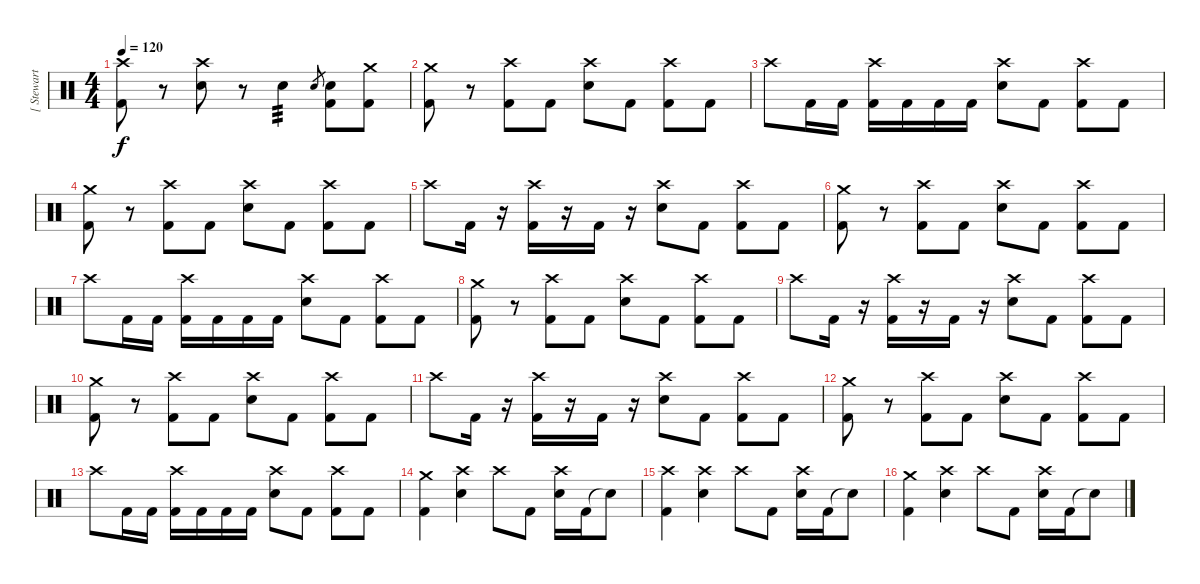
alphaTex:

\track ("[ Stewart ] " "[ Stewart ") {instrument percussion}
\staff {score}
\articulation defaults
\ts (4 4)
\tempo 120
\clef neutral
\ks c
("Kick (hit) 2" "Crash high (hit)").8{dy f} r.8 ("Electric Snare (hit)" "Crash high (hit)").8 r.8 "Electric Snare (hit)".4{tp 3} "Electric Snare (hit)".8{gr} ("Kick (hit) 2" "Electric Snare (hit)").8 ("Kick (hit) 2" "Crash medium (hit)").8 |
("Kick (hit) 2" "Crash medium (hit)").8 r.8 ("Kick (hit) 2" "Crash high (hit)").8 "Kick (hit) 2".8 ("Electric Snare (hit)" "Crash high (hit)").8 "Kick (hit) 2".8 ("Kick (hit) 2" "Crash high (hit)").8 "Kick (hit) 2".8 |
"Crash high (hit)".8 "Kick (hit) 2".16 "Kick (hit) 2".16 ("Kick (hit) 2" "Crash high (hit)").16 "Kick (hit) 2".16 "Kick (hit) 2".16 "Kick (hit) 2".16 ("Electric Snare (hit)" "Crash high (hit)").8 "Kick (hit) 2".8 ("Kick (hit) 2" "Crash high (hit)").8 "Kick (hit) 2".8 |
("Kick (hit) 2" "Crash medium (hit)").8 r.8 ("Kick (hit) 2" "Crash high (hit)").8 "Kick (hit) 2".8 ("Electric Snare (hit)" "Crash high (hit)").8 "Kick (hit) 2".8 ("Kick (hit) 2" "Crash high (hit)").8 "Kick (hit) 2".8 |
"Crash high (hit)".8 "Kick (hit) 2".16 r.16 ("Kick (hit) 2" "Crash high (hit)").16 r.16 "Kick (hit) 2".16 r.16 ("Electric Snare (hit)" "Crash high (hit)").8 "Kick (hit) 2".8 ("Kick (hit) 2" "Crash high (hit)").8 "Kick (hit) 2".8 |
("Kick (hit) 2" "Crash medium (hit)").8 r.8 ("Kick (hit) 2" "Crash high (hit)").8 "Kick (hit) 2".8 ("Electric Snare (hit)" "Crash high (hit)").8 "Kick (hit) 2".8 ("Kick (hit) 2" "Crash high (hit)").8 "Kick (hit) 2".8 |
"Crash high (hit)".8 "Kick (hit) 2".16 "Kick (hit) 2".16 ("Kick (hit) 2" "Crash high (hit)").16 "Kick (hit) 2".16 "Kick (hit) 2".16 "Kick (hit) 2".16 ("Electric Snare (hit)" "Crash high (hit)").8 "Kick (hit) 2".8 ("Kick (hit) 2" "Crash high (hit)").8 "Kick (hit) 2".8 |
("Kick (hit) 2" "Crash medium (hit)").8 r.8 ("Kick (hit) 2" "Crash high (hit)").8 "Kick (hit) 2".8 ("Electric Snare (hit)" "Crash high (hit)").8 "Kick (hit) 2".8 ("Kick (hit) 2" "Crash high (hit)").8 "Kick (hit) 2".8 |
"Crash high (hit)".8 "Kick (hit) 2".16 r.16 ("Kick (hit) 2" "Crash high (hit)").16 r.16 "Kick (hit) 2".16 r.16 ("Electric Snare (hit)" "Crash high (hit)").8 "Kick (hit) 2".8 ("Kick (hit) 2" "Crash high (hit)").8 "Kick (hit) 2".8 |
("Kick (hit) 2" "Crash medium (hit)").8 r.8 ("Kick (hit) 2" "Crash high (hit)").8 "Kick (hit) 2".8 ("Electric Snare (hit)" "Crash high (hit)").8 "Kick (hit) 2".8 ("Kick (hit) 2" "Crash high (hit)").8 "Kick (hit) 2".8 |
"Crash high (hit)".8 "Kick (hit) 2".16 r.16 ("Kick (hit) 2" "Crash high (hit)").16 r.16 "Kick (hit) 2".16 r.16 ("Electric Snare (hit)" "Crash high (hit)").8 "Kick (hit) 2".8 ("Kick (hit) 2" "Crash high (hit)").8 "Kick (hit) 2".8 |
("Kick (hit) 2" "Crash medium (hit)").8 r.8 ("Kick (hit) 2" "Crash high (hit)").8 "Kick (hit) 2".8 ("Electric Snare (hit)" "Crash high (hit)").8 "Kick (hit) 2".8 ("Kick (hit) 2" "Crash high (hit)").8 "Kick (hit) 2".8 |
"Crash high (hit)".8 "Kick (hit) 2".16 "Kick (hit) 2".16 ("Kick (hit) 2" "Crash high (hit)").16 "Kick (hit) 2".16 "Kick (hit) 2".16 "Kick (hit) 2".16 ("Electric Snare (hit)" "Crash high (hit)").8 "Kick (hit) 2".8 ("Kick (hit) 2" "Crash high (hit)").8 "Kick (hit) 2".8 |
("Kick (hit) 2" "Crash medium (hit)").4 ("Electric Snare (hit)" "Crash high (hit)").4 "Crash high (hit)".8 "Kick (hit) 2".8 ("Electric Snare (hit)" "Crash high (hit)").16 "Kick (hit) 2".16 "Snare (hit)"{t}.8 |
("Kick (hit) 2" "Crash high (hit)").4 ("Electric Snare (hit)" "Crash high (hit)").4 "Crash high (hit)".8 "Kick (hit) 2".8 ("Electric Snare (hit)" "Crash high (hit)").16 "Kick (hit) 2".16 "Snare (hit)"{t}.8 |
("Kick (hit) 2" "Crash medium (hit)").4 ("Electric Snare (hit)" "Crash high (hit)").4 "Crash high (hit)".8 "Kick (hit) 2".8 ("Electric Snare (hit)" "Crash high (hit)").16 "Kick (hit) 2".16 "Snare (hit)"{t}.8
